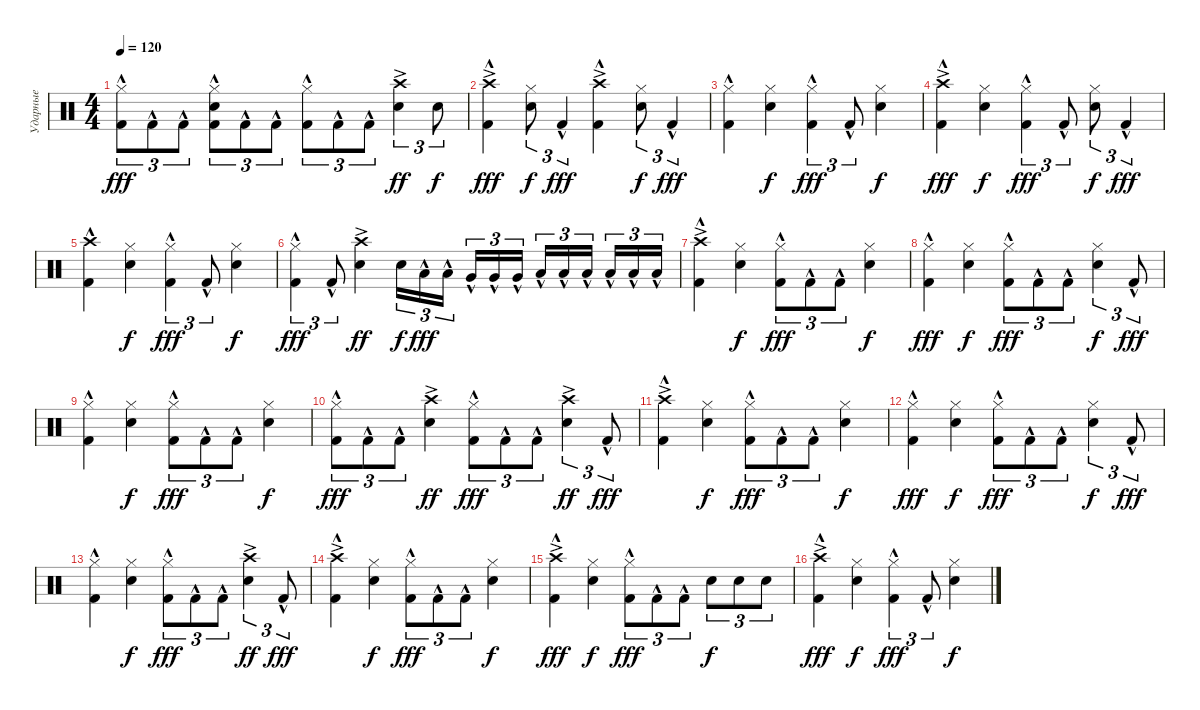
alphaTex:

\track ("Ударные" "Ударные") {instrument percussion}
\staff {score}
\articulation defaults
\ts (4 4)
\tempo 120
\clef neutral
\ks c
("Hi-Hat (closed)" "Kick (hit) 2"{hac}).8{tu (3 2) dy fff} "Kick (hit) 2"{hac}.8{tu (3 2)} "Kick (hit) 2"{hac}.8{tu (3 2)} ("Hi-Hat (closed)" "Snare (hit) 2" "Kick (hit) 2"{hac}).8{tu (3 2)} "Kick (hit) 2"{hac}.8{tu (3 2)} "Kick (hit) 2"{hac}.8{tu (3 2)} ("Hi-Hat (closed)" "Kick (hit) 2"{hac}).8{tu (3 2)} "Kick (hit) 2"{hac}.8{tu (3 2)} "Kick (hit) 2"{hac}.8{tu (3 2)} ("Crash high (hit)"{ac} "Snare (hit) 2").4{tu (3 2) dy ff} "Snare (hit) 2".8{tu (3 2) dy f} |
("Crash high (hit)"{ac} "Kick (hit) 2"{hac}).4{dy fff} ("Hi-Hat (closed)" "Snare (hit) 2").8{tu (3 2) dy f} "Kick (hit) 2"{hac}.4{tu (3 2) dy fff} ("Crash high (hit)"{ac} "Kick (hit) 2"{hac}).4 ("Hi-Hat (closed)" "Snare (hit) 2").8{tu (3 2) dy f} "Kick (hit) 2"{hac}.4{tu (3 2) dy fff} |
("Hi-Hat (closed)" "Kick (hit) 2"{hac}).4 ("Hi-Hat (closed)" "Snare (hit) 2").4{dy f} ("Hi-Hat (closed)" "Kick (hit) 2"{hac}).4{tu (3 2) dy fff} "Kick (hit) 2"{hac}.8{tu (3 2)} ("Hi-Hat (closed)" "Snare (hit) 2").4{dy f} |
("Crash high (hit)"{ac} "Kick (hit) 2"{hac}).4{dy fff} ("Hi-Hat (closed)" "Snare (hit) 2").4{dy f} ("Hi-Hat (closed)" "Kick (hit) 2"{hac}).4{tu (3 2) dy fff} "Kick (hit) 2"{hac}.8{tu (3 2)} ("Hi-Hat (closed)" "Snare (hit) 2").8{tu (3 2) dy f} "Kick (hit) 2"{hac}.4{tu (3 2) dy fff} |
("Crash high (hit)" "Kick (hit) 2"{hac}).4 ("Hi-Hat (closed)" "Snare (hit) 2").4{dy f} ("Hi-Hat (closed)" "Kick (hit) 2"{hac}).4{tu (3 2) dy fff} "Kick (hit) 2"{hac}.8{tu (3 2)} ("Hi-Hat (closed)" "Snare (hit) 2").4{dy f} |
("Hi-Hat (closed)" "Kick (hit) 2"{hac}).4{tu (3 2) dy fff} "Kick (hit) 2"{hac}.8{tu (3 2)} ("Crash high (hit)"{ac} "Snare (hit) 2").4{dy ff} "Snare (hit) 2".16{tu (3 2) dy f} "Low Tom (hit)"{hac}.16{tu (3 2) dy fff} "Low Tom (hit)"{hac}.16{tu (3 2) beam splitsecondary} "Very Low Tom (hit)"{hac}.16{tu (3 2)} "Very Low Tom (hit)"{hac}.16{tu (3 2)} "Very Low Tom (hit)"{hac}.16{tu (3 2)} "Low Floor Tom (hit)"{hac}.16{tu (3 2)} "Low Floor Tom (hit)"{hac}.16{tu (3 2)} "Low Floor Tom (hit)"{hac}.16{tu (3 2) beam splitsecondary} "Low Floor Tom (hit)"{hac}.16{tu (3 2)} "Low Floor Tom (hit)"{hac}.16{tu (3 2)} "Low Floor Tom (hit)"{hac}.16{tu (3 2)} |
("Crash high (hit)"{ac} "Kick (hit) 2"{hac}).4 ("Hi-Hat (closed)" "Snare (hit) 2").4{dy f} ("Hi-Hat (closed)" "Kick (hit) 2"{hac}).8{tu (3 2) dy fff} "Kick (hit) 2"{hac}.8{tu (3 2)} "Kick (hit) 2"{hac}.8{tu (3 2)} ("Hi-Hat (closed)" "Snare (hit) 2").4{dy f} |
("Hi-Hat (closed)" "Kick (hit) 2"{hac}).4{dy fff} ("Hi-Hat (closed)" "Snare (hit) 2").4{dy f} ("Hi-Hat (closed)" "Kick (hit) 2"{hac}).8{tu (3 2) dy fff} "Kick (hit) 2"{hac}.8{tu (3 2)} "Kick (hit) 2"{hac}.8{tu (3 2)} ("Hi-Hat (closed)" "Snare (hit) 2").4{tu (3 2) dy f} "Kick (hit) 2"{hac}.8{tu (3 2) dy fff} |
("Hi-Hat (closed)" "Kick (hit) 2"{hac}).4 ("Hi-Hat (closed)" "Snare (hit) 2").4{dy f} ("Hi-Hat (closed)" "Kick (hit) 2"{hac}).8{tu (3 2) dy fff} "Kick (hit) 2"{hac}.8{tu (3 2)} "Kick (hit) 2"{hac}.8{tu (3 2)} ("Hi-Hat (closed)" "Snare (hit) 2").4{dy f} |
("Hi-Hat (closed)" "Kick (hit) 2"{hac}).8{tu (3 2) dy fff} "Kick (hit) 2"{hac}.8{tu (3 2)} "Kick (hit) 2"{hac}.8{tu (3 2)} ("Crash high (hit)"{ac} "Snare (hit) 2").4{dy ff} ("Hi-Hat (closed)" "Kick (hit) 2"{hac}).8{tu (3 2) dy fff} "Kick (hit) 2"{hac}.8{tu (3 2)} "Kick (hit) 2"{hac}.8{tu (3 2)} ("Crash high (hit)"{ac} "Snare (hit) 2").4{tu (3 2) dy ff} "Kick (hit) 2"{hac}.8{tu (3 2) dy fff} |
("Crash high (hit)"{ac} "Kick (hit) 2"{hac}).4 ("Hi-Hat (closed)" "Snare (hit) 2").4{dy f} ("Hi-Hat (closed)" "Kick (hit) 2"{hac}).8{tu (3 2) dy fff} "Kick (hit) 2"{hac}.8{tu (3 2)} "Kick (hit) 2"{hac}.8{tu (3 2)} ("Hi-Hat (closed)" "Snare (hit) 2").4{dy f} |
("Hi-Hat (closed)" "Kick (hit) 2"{hac}).4{dy fff} ("Hi-Hat (closed)" "Snare (hit) 2").4{dy f} ("Hi-Hat (closed)" "Kick (hit) 2"{hac}).8{tu (3 2) dy fff} "Kick (hit) 2"{hac}.8{tu (3 2)} "Kick (hit) 2"{hac}.8{tu (3 2)} ("Hi-Hat (closed)" "Snare (hit) 2").4{tu (3 2) dy f} "Kick (hit) 2"{hac}.8{tu (3 2) dy fff} |
("Hi-Hat (closed)" "Kick (hit) 2"{hac}).4 ("Hi-Hat (closed)" "Snare (hit) 2").4{dy f} ("Hi-Hat (closed)" "Kick (hit) 2"{hac}).8{tu (3 2) dy fff} "Kick (hit) 2"{hac}.8{tu (3 2)} "Kick (hit) 2"{hac}.8{tu (3 2)} ("Crash high (hit)"{ac} "Snare (hit) 2").4{tu (3 2) dy ff} "Kick (hit) 2"{hac}.8{tu (3 2) dy fff} |
("Crash high (hit)"{ac} "Kick (hit) 2"{hac}).4 ("Hi-Hat (closed)" "Snare (hit) 2").4{dy f} ("Hi-Hat (closed)" "Kick (hit) 2"{hac}).8{tu (3 2) dy fff} "Kick (hit) 2"{hac}.8{tu (3 2)} "Kick (hit) 2"{hac}.8{tu (3 2)} ("Hi-Hat (closed)" "Snare (hit) 2").4{dy f} |
("Crash high (hit)"{ac} "Kick (hit) 2"{hac}).4{dy fff} ("Hi-Hat (closed)" "Snare (hit) 2").4{dy f} ("Hi-Hat (closed)" "Kick (hit) 2"{hac}).8{tu (3 2) dy fff} "Kick (hit) 2"{hac}.8{tu (3 2)} "Kick (hit) 2"{hac}.8{tu (3 2)} "Snare (hit) 2".8{tu (3 2) dy f} "Snare (hit) 2".8{tu (3 2)} "Snare (hit) 2".8{tu (3 2)} |
("Crash high (hit)"{ac} "Kick (hit) 2"{hac}).4{dy fff} ("Hi-Hat (closed)" "Snare (hit) 2").4{dy f} ("Hi-Hat (closed)" "Kick (hit) 2"{hac}).4{tu (3 2) dy fff} "Kick (hit) 2"{hac}.8{tu (3 2)} ("Hi-Hat (closed)" "Snare (hit) 2").4{dy f}
